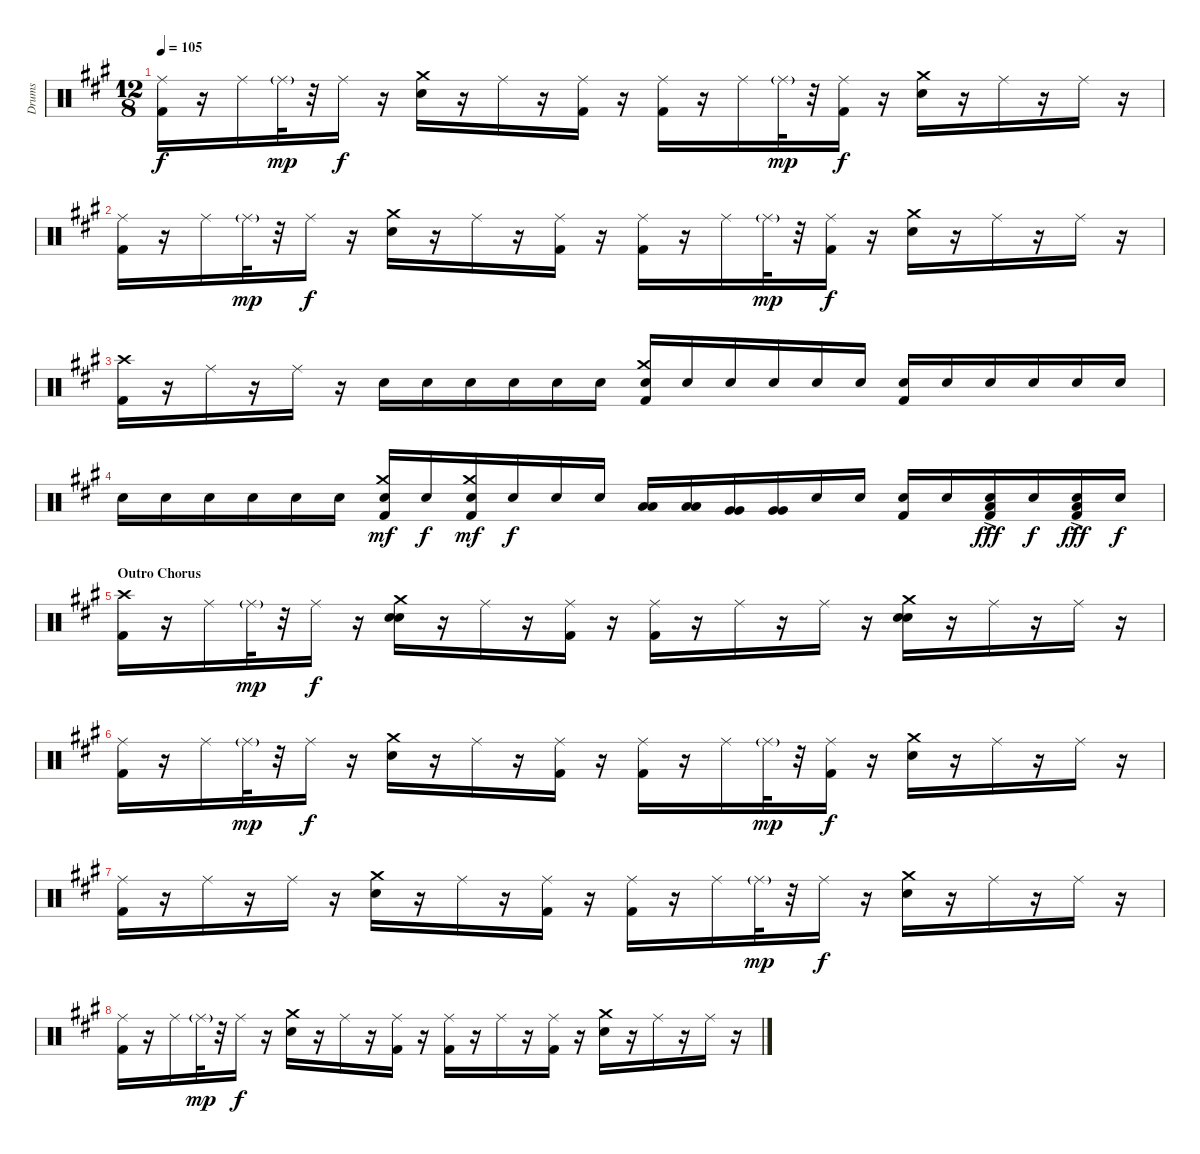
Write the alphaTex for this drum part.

\track ("Drums" "Drums") {instrument percussion}
\staff {score}
\articulation defaults
\ts (12 8)
\tempo 105
\clef neutral
\ks a
("Ride (middle)" "Kick (hit) 2").16{dy f} r.16 "Ride (middle)".16 "Ride (middle)"{g}.32{dy mp} r.32 "Ride (middle)".16{dy f} r.16 ("Crash medium (hit)" "Snare (hit) 2").16 r.16 "Ride (middle)".16 r.16 ("Ride (middle)" "Kick (hit) 2").16 r.16 ("Ride (middle)" "Kick (hit) 2").16 r.16 "Ride (middle)".16 "Ride (middle)"{g}.32{dy mp} r.32 ("Ride (middle)" "Kick (hit) 2").16{dy f} r.16 ("Crash medium (hit)" "Snare (hit) 2").16 r.16 "Ride (middle)".16 r.16 "Ride (middle)".16 r.16 |
("Ride (middle)" "Kick (hit) 2").16 r.16 "Ride (middle)".16 "Ride (middle)"{g}.32{dy mp} r.32 "Ride (middle)".16{dy f} r.16 ("Crash medium (hit)" "Snare (hit) 2").16 r.16 "Ride (middle)".16 r.16 ("Ride (middle)" "Kick (hit) 2").16 r.16 ("Ride (middle)" "Kick (hit) 2").16 r.16 "Ride (middle)".16 "Ride (middle)"{g}.32{dy mp} r.32 ("Ride (middle)" "Kick (hit) 2").16{dy f} r.16 ("Crash medium (hit)" "Snare (hit) 2").16 r.16 "Ride (middle)".16 r.16 "Ride (middle)".16 r.16 |
("Crash high (hit)" "Kick (hit) 2").16 r.16 "Ride (middle)".16 r.16 "Ride (middle)".16 r.16 "Electric Snare (hit)".16 "Electric Snare (hit)".16 "Electric Snare (hit)".16 "Electric Snare (hit)".16 "Electric Snare (hit)".16 "Electric Snare (hit)".16 ("Crash medium (hit)" "Snare (hit) 2" "Kick (hit) 2").16 "Electric Snare (hit)".16 "Electric Snare (hit)".16 "Electric Snare (hit)".16 "Electric Snare (hit)".16 "Electric Snare (hit)".16 ("Snare (hit) 2" "Kick (hit) 2").16 "Electric Snare (hit)".16 "Electric Snare (hit)".16 "Electric Snare (hit)".16 "Electric Snare (hit)".16 "Electric Snare (hit)".16 |
"Electric Snare (hit)".16 "Electric Snare (hit)".16 "Electric Snare (hit)".16 "Electric Snare (hit)".16 "Electric Snare (hit)".16 "Electric Snare (hit)".16 ("Crash medium (hit)" "Snare (hit) 2" "Kick (hit) 2").16{dy mf} "Electric Snare (hit)".16{dy f} ("Crash medium (hit)" "Snare (hit) 2" "Kick (hit) 2").16{dy mf} "Electric Snare (hit)".16{dy f} "Electric Snare (hit)".16 "Electric Snare (hit)".16 ("Low Tom (hit)" "Low Tom (hit)").16 ("Low Tom (hit)" "Low Tom (hit)").16 ("Very Low Tom (hit)" "Very Low Tom (hit)").16 ("Very Low Tom (hit)" "Very Low Tom (hit)").16 "Electric Snare (hit)".16 "Electric Snare (hit)".16 ("Electric Snare (hit)" "Kick (hit) 2").16 "Electric Snare (hit)".16 ("Low Tom (hit)" "Snare (hit) 2" "Kick (hit) 2"{ac}).16{dy fff} "Electric Snare (hit)".16{dy f} ("Low Tom (hit)" "Snare (hit) 2" "Kick (hit) 2"{ac}).16{dy fff} "Electric Snare (hit)".16{dy f} |
\section ("" "Outro Chorus")
("Crash high (hit)" "Kick (hit) 2").16 r.16 "Ride (middle)".16 "Ride (middle)"{g}.32{dy mp} r.32 "Ride (middle)".16{dy f} r.16 ("Crash medium (hit)" "Electric Snare (hit)" "Snare (hit) 2").16 r.16 "Ride (middle)".16 r.16 ("Ride (middle)" "Kick (hit) 2").16 r.16 ("Ride (middle)" "Kick (hit) 2").16 r.16 "Ride (middle)".16 r.16 "Ride (middle)".16 r.16 ("Crash medium (hit)" "Electric Snare (hit)" "Snare (hit) 2").16 r.16 "Ride (middle)".16 r.16 "Ride (middle)".16 r.16 |
("Ride (middle)" "Kick (hit) 2").16 r.16 "Ride (middle)".16 "Ride (middle)"{g}.32{dy mp} r.32 "Ride (middle)".16{dy f} r.16 ("Crash medium (hit)" "Snare (hit) 2").16 r.16 "Ride (middle)".16 r.16 ("Ride (middle)" "Kick (hit) 2").16 r.16 ("Ride (middle)" "Kick (hit) 2").16 r.16 "Ride (middle)".16 "Ride (middle)"{g}.32{dy mp} r.32 ("Ride (middle)" "Kick (hit) 2").16{dy f} r.16 ("Crash medium (hit)" "Snare (hit) 2").16 r.16 "Ride (middle)".16 r.16 "Ride (middle)".16 r.16 |
("Ride (middle)" "Kick (hit) 2").16 r.16 "Ride (middle)".16 r.16 "Ride (middle)".16 r.16 ("Crash medium (hit)" "Snare (hit) 2").16 r.16 "Ride (middle)".16 r.16 ("Ride (middle)" "Kick (hit) 2").16 r.16 ("Ride (middle)" "Kick (hit) 2").16 r.16 "Ride (middle)".16 "Ride (middle)"{g}.32{dy mp} r.32 "Ride (middle)".16{dy f} r.16 ("Crash medium (hit)" "Snare (hit) 2").16 r.16 "Ride (middle)".16 r.16 "Ride (middle)".16 r.16 |
("Ride (middle)" "Kick (hit) 2").16 r.16 "Ride (middle)".16 "Ride (middle)"{g}.32{dy mp} r.32 "Ride (middle)".16{dy f} r.16 ("Crash medium (hit)" "Snare (hit) 2").16 r.16 "Ride (middle)".16 r.16 ("Ride (middle)" "Kick (hit) 2").16 r.16 ("Ride (middle)" "Kick (hit) 2").16 r.16 "Ride (middle)".16 r.16 ("Ride (middle)" "Kick (hit) 2").16 r.16 ("Crash medium (hit)" "Snare (hit) 2").16 r.16 "Ride (middle)".16 r.16 "Ride (middle)".16 r.16
